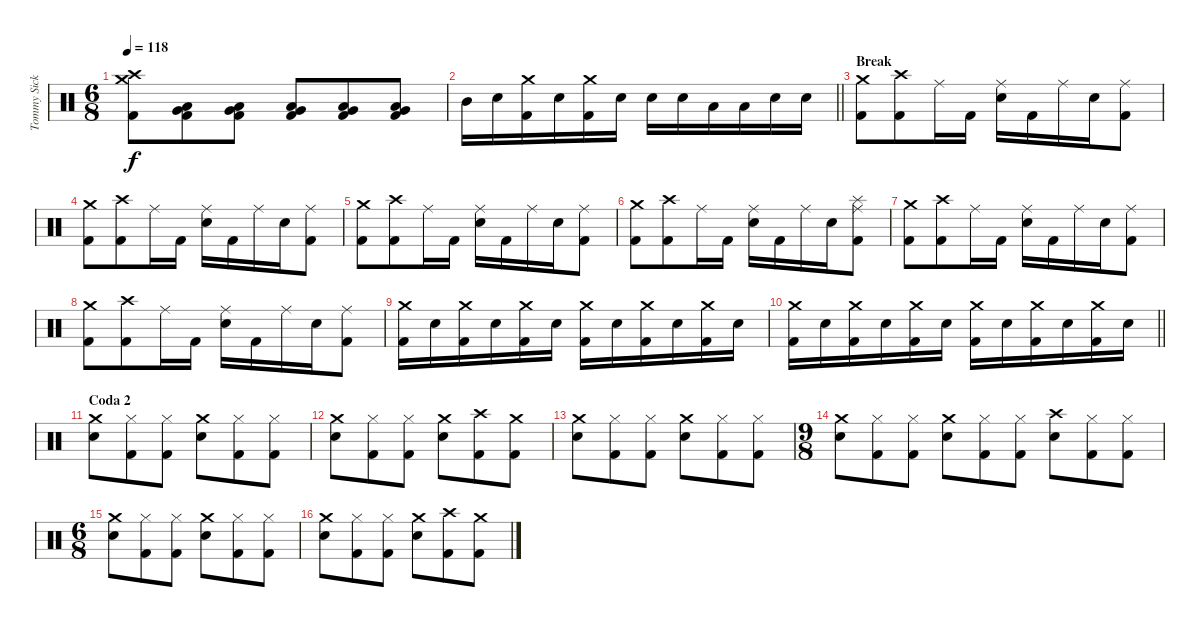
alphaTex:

\track ("Tommy Sickles" "Tommy Sick") {instrument percussion}
\staff {score}
\articulation defaults
\ts (6 8)
\tempo 118
\clef neutral
\ks c
("Crash high (hit)" "Crash medium (hit)" "Kick (hit) 2").8{dy f} ("Low Tom (hit)" "Very Low Tom (hit)" "Kick (hit) 2").8 ("Low Tom (hit)" "Very Low Tom (hit)" "Kick (hit) 2").8 ("Low Tom (hit)" "Very Low Tom (hit)" "Kick (hit) 2").8 ("Low Tom (hit)" "Very Low Tom (hit)" "Kick (hit) 2").8 ("Low Tom (hit)" "Very Low Tom (hit)" "Kick (hit) 2").8 |
\barLineRight lightlight "Mid Tom (hit)".16 "Electric Snare (hit)".16
("Crash medium (hit)" "Kick (hit) 2").16 "Electric Snare (hit)".16 ("Crash medium (hit)" "Kick (hit) 2").16 "Electric Snare (hit)".16 "Electric Snare (hit)".16 "Electric Snare (hit)".16 "Low Tom (hit)".16 "Low Tom (hit)".16 "Electric Snare (hit)".16 "Electric Snare (hit)".16 |
\section ("" "Break")
("Crash medium (hit)" "Kick (hit) 2").8 ("Crash high (hit)" "Kick (hit) 2").8 "Ride (middle)".16 "Kick (hit) 2".16 ("Ride (middle)" "Electric Snare (hit)").16 "Kick (hit) 2".16 "Ride (middle)".16 "Electric Snare (hit)".16 ("Ride (middle)" "Kick (hit) 2").8 |
("Crash medium (hit)" "Kick (hit) 2").8 ("Crash high (hit)" "Kick (hit) 2").8 "Ride (middle)".16 "Kick (hit) 2".16 ("Ride (middle)" "Electric Snare (hit)").16 "Kick (hit) 2".16 "Ride (middle)".16 "Electric Snare (hit)".16 ("Ride (middle)" "Kick (hit) 2").8 |
("Crash medium (hit)" "Kick (hit) 2").8 ("Crash high (hit)" "Kick (hit) 2").8 "Ride (middle)".16 "Kick (hit) 2".16 ("Ride (middle)" "Electric Snare (hit)").16 "Kick (hit) 2".16 "Ride (middle)".16 "Electric Snare (hit)".16 ("Ride (middle)" "Kick (hit) 2").8 |
("Crash medium (hit)" "Kick (hit) 2").8 ("Crash high (hit)" "Kick (hit) 2").8 "Ride (middle)".16 "Kick (hit) 2".16 ("Ride (middle)" "Electric Snare (hit)").16 "Kick (hit) 2".16 "Ride (middle)".16 "Electric Snare (hit)".16 ("Splash (hit)" "Ride (middle)" "Kick (hit) 2").8 |
("Crash medium (hit)" "Kick (hit) 2").8 ("Crash high (hit)" "Kick (hit) 2").8 "Ride (middle)".16 "Kick (hit) 2".16 ("Ride (middle)" "Electric Snare (hit)").16 "Kick (hit) 2".16 "Ride (middle)".16 "Electric Snare (hit)".16 ("Ride (middle)" "Kick (hit) 2").8 |
("Crash medium (hit)" "Kick (hit) 2").8 ("Crash high (hit)" "Kick (hit) 2").8 "Ride (middle)".16 "Kick (hit) 2".16 ("Ride (middle)" "Electric Snare (hit)").16 "Kick (hit) 2".16 "Ride (middle)".16 "Electric Snare (hit)".16 ("Ride (middle)" "Kick (hit) 2").8 |
("Crash medium (hit)" "Kick (hit) 2").16 "Electric Snare (hit)".16 ("Crash medium (hit)" "Kick (hit) 2").16 "Electric Snare (hit)".16 ("Crash medium (hit)" "Kick (hit) 2").16 "Electric Snare (hit)".16 ("Crash medium (hit)" "Kick (hit) 2").16 "Electric Snare (hit)".16 ("Crash medium (hit)" "Kick (hit) 2").16 "Electric Snare (hit)".16 ("Crash medium (hit)" "Kick (hit) 2").16 "Electric Snare (hit)".16 |
\barLineRight lightlight
("Crash medium (hit)" "Kick (hit) 2").16 "Electric Snare (hit)".16 ("Crash medium (hit)" "Kick (hit) 2").16 "Electric Snare (hit)".16 ("Crash medium (hit)" "Kick (hit) 2").16 "Electric Snare (hit)".16 ("Crash medium (hit)" "Kick (hit) 2").16 "Electric Snare (hit)".16 ("Crash medium (hit)" "Kick (hit) 2").16 "Electric Snare (hit)".16 ("Crash medium (hit)" "Kick (hit) 2").16 "Electric Snare (hit)".16 |
\section ("" "Coda 2")
("Crash medium (hit)" "Electric Snare (hit)").8 ("Hi-Hat (closed)" "Kick (hit) 2").8 ("Hi-Hat (closed)" "Kick (hit) 2").8 ("Crash medium (hit)" "Electric Snare (hit)").8 ("Hi-Hat (closed)" "Kick (hit) 2").8 ("Hi-Hat (closed)" "Kick (hit) 2").8 |
("Crash medium (hit)" "Electric Snare (hit)").8 ("Hi-Hat (closed)" "Kick (hit) 2").8 ("Hi-Hat (closed)" "Kick (hit) 2").8 ("Crash medium (hit)" "Electric Snare (hit)").8 ("Crash high (hit)" "Kick (hit) 2").8 ("Crash medium (hit)" "Kick (hit) 2").8 |
("Crash medium (hit)" "Electric Snare (hit)").8 ("Hi-Hat (closed)" "Kick (hit) 2").8 ("Hi-Hat (closed)" "Kick (hit) 2").8 ("Crash medium (hit)" "Electric Snare (hit)").8 ("Hi-Hat (closed)" "Kick (hit) 2").8 ("Hi-Hat (closed)" "Kick (hit) 2").8 |
\ts (9 8)
("Crash medium (hit)" "Electric Snare (hit)").8 ("Hi-Hat (closed)" "Kick (hit) 2").8 ("Hi-Hat (closed)" "Kick (hit) 2").8 ("Crash medium (hit)" "Electric Snare (hit)").8 ("Hi-Hat (closed)" "Kick (hit) 2").8 ("Hi-Hat (closed)" "Kick (hit) 2").8 ("Crash high (hit)" "Electric Snare (hit)").8 ("Hi-Hat (closed)" "Kick (hit) 2").8 ("Hi-Hat (closed)" "Kick (hit) 2").8 |
\ts (6 8)
("Crash medium (hit)" "Electric Snare (hit)").8 ("Hi-Hat (closed)" "Kick (hit) 2").8 ("Hi-Hat (closed)" "Kick (hit) 2").8 ("Crash medium (hit)" "Electric Snare (hit)").8 ("Hi-Hat (closed)" "Kick (hit) 2").8 ("Hi-Hat (closed)" "Kick (hit) 2").8 |
("Crash medium (hit)" "Electric Snare (hit)").8 ("Hi-Hat (closed)" "Kick (hit) 2").8 ("Hi-Hat (closed)" "Kick (hit) 2").8 ("Crash medium (hit)" "Electric Snare (hit)").8 ("Crash high (hit)" "Kick (hit) 2").8 ("Crash medium (hit)" "Kick (hit) 2").8
